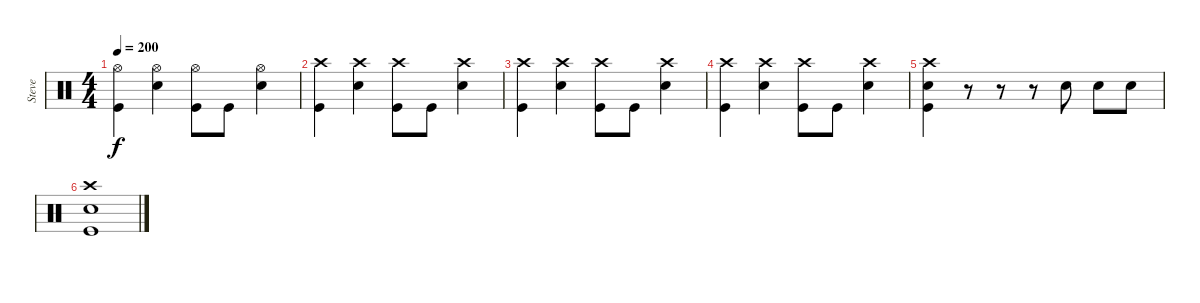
\track ("Steve" "Steve") {instrument percussion}
\staff {score}
\articulation defaults
\ts (4 4)
\tempo 200
\clef neutral
\ks c
("Hi-Hat (open)" "Kick (hit)").4{dy f} ("Hi-Hat (open)" "Snare (hit) 2").4 ("Hi-Hat (open)" "Kick (hit)").8 "Kick (hit)".8 ("Hi-Hat (open)" "Snare (hit) 2").4 |
("Crash high (hit)" "Kick (hit)").4 ("Crash high (hit)" "Snare (hit) 2").4 ("Crash high (hit)" "Kick (hit)").8 "Kick (hit)".8 ("Crash high (hit)" "Snare (hit) 2").4 |
("Crash high (hit)" "Kick (hit)").4 ("Crash high (hit)" "Snare (hit) 2").4 ("Crash high (hit)" "Kick (hit)").8 "Kick (hit)".8 ("Crash high (hit)" "Snare (hit) 2").4 |
("Crash high (hit)" "Kick (hit)").4 ("Crash high (hit)" "Snare (hit) 2").4 ("Crash high (hit)" "Kick (hit)").8 "Kick (hit)".8 ("Crash high (hit)" "Snare (hit) 2").4 |
("Crash high (hit)" "Snare (hit) 2" "Kick (hit)").4 r.8 r.8 r.8 "Snare (hit) 2".8 "Snare (hit) 2".8 "Snare (hit) 2".8 |
("Crash high (hit)" "Snare (hit) 2" "Kick (hit)").1
